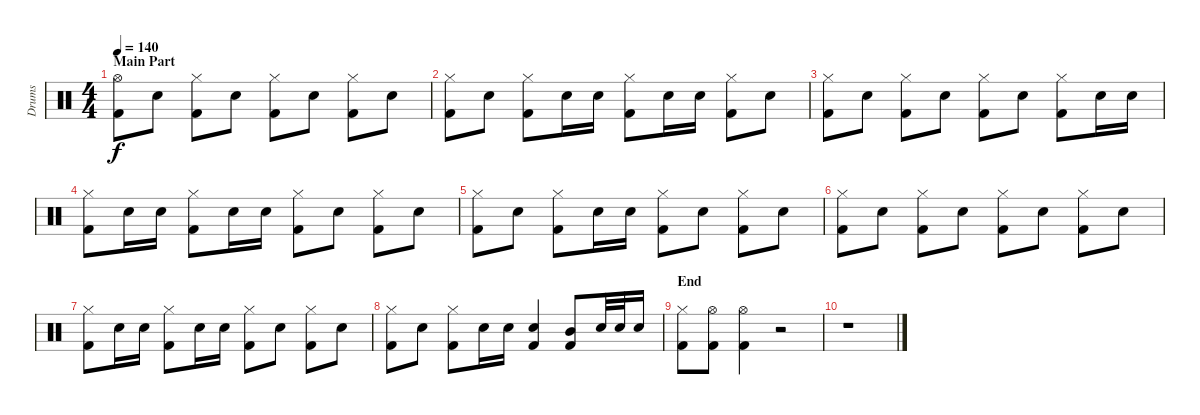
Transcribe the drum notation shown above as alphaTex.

\track ("Drums" "Drums") {instrument percussion}
\staff {score}
\articulation defaults
\ts (4 4)
\section ("" "Main Part")
\tempo 140
\clef neutral
\ks c
("Hi-Hat (open)" "Kick (hit) 2").8{dy f} "Snare (hit) 2".8 ("Hi-Hat (closed)" "Kick (hit) 2").8 "Snare (hit) 2".8 ("Hi-Hat (closed)" "Kick (hit) 2").8 "Snare (hit) 2".8 ("Hi-Hat (closed)" "Kick (hit) 2").8 "Snare (hit) 2".8 |
("Hi-Hat (closed)" "Kick (hit) 2").8 "Snare (hit) 2".8 ("Hi-Hat (closed)" "Kick (hit) 2").8 "Snare (hit) 2".16 "Snare (hit) 2".16 ("Hi-Hat (closed)" "Kick (hit) 2").8 "Snare (hit) 2".16 "Snare (hit) 2".16 ("Hi-Hat (closed)" "Kick (hit) 2").8 "Snare (hit) 2".8 |
("Hi-Hat (closed)" "Kick (hit) 2").8 "Snare (hit) 2".8 ("Hi-Hat (closed)" "Kick (hit) 2").8 "Snare (hit) 2".8 ("Hi-Hat (closed)" "Kick (hit) 2").8 "Snare (hit) 2".8 ("Hi-Hat (closed)" "Kick (hit) 2").8 "Snare (hit) 2".16 "Snare (hit) 2".16 |
("Hi-Hat (closed)" "Kick (hit) 2").8 "Snare (hit) 2".16 "Snare (hit) 2".16 ("Hi-Hat (closed)" "Kick (hit) 2").8 "Snare (hit) 2".16 "Snare (hit) 2".16 ("Hi-Hat (closed)" "Kick (hit) 2").8 "Snare (hit) 2".8 ("Hi-Hat (closed)" "Kick (hit) 2").8 "Snare (hit) 2".8 |
("Hi-Hat (closed)" "Kick (hit) 2").8 "Snare (hit) 2".8 ("Hi-Hat (closed)" "Kick (hit) 2").8 "Snare (hit) 2".16 "Snare (hit) 2".16 ("Hi-Hat (closed)" "Kick (hit) 2").8 "Snare (hit) 2".8 ("Hi-Hat (closed)" "Kick (hit) 2").8 "Snare (hit) 2".8 |
("Hi-Hat (closed)" "Kick (hit) 2").8 "Snare (hit) 2".8 ("Hi-Hat (closed)" "Kick (hit) 2").8 "Snare (hit) 2".8 ("Hi-Hat (closed)" "Kick (hit) 2").8 "Snare (hit) 2".8 ("Hi-Hat (closed)" "Kick (hit) 2").8 "Snare (hit) 2".8 |
("Hi-Hat (closed)" "Kick (hit) 2").8 "Snare (hit) 2".16 "Snare (hit) 2".16 ("Hi-Hat (closed)" "Kick (hit) 2").8 "Snare (hit) 2".16 "Snare (hit) 2".16 ("Hi-Hat (closed)" "Kick (hit) 2").8 "Snare (hit) 2".8 ("Hi-Hat (closed)" "Kick (hit) 2").8 "Snare (hit) 2".8 |
("Hi-Hat (closed)" "Kick (hit) 2").8 "Snare (hit) 2".8 ("Hi-Hat (closed)" "Kick (hit) 2").8 "Snare (hit) 2".16 "Snare (hit) 2".16 ("Snare (hit) 2" "Kick (hit) 2").4 ("Mid Tom (hit)" "Kick (hit) 2").8 "Snare (hit) 2".32 "Snare (hit) 2".32 "Snare (hit) 2".16 |
\section ("" "End")
("Hi-Hat (closed)" "Kick (hit) 2").8 ("Hi-Hat (open)" "Kick (hit) 2").8 ("Hi-Hat (open)" "Kick (hit) 2").4 r.2 |
r.1
